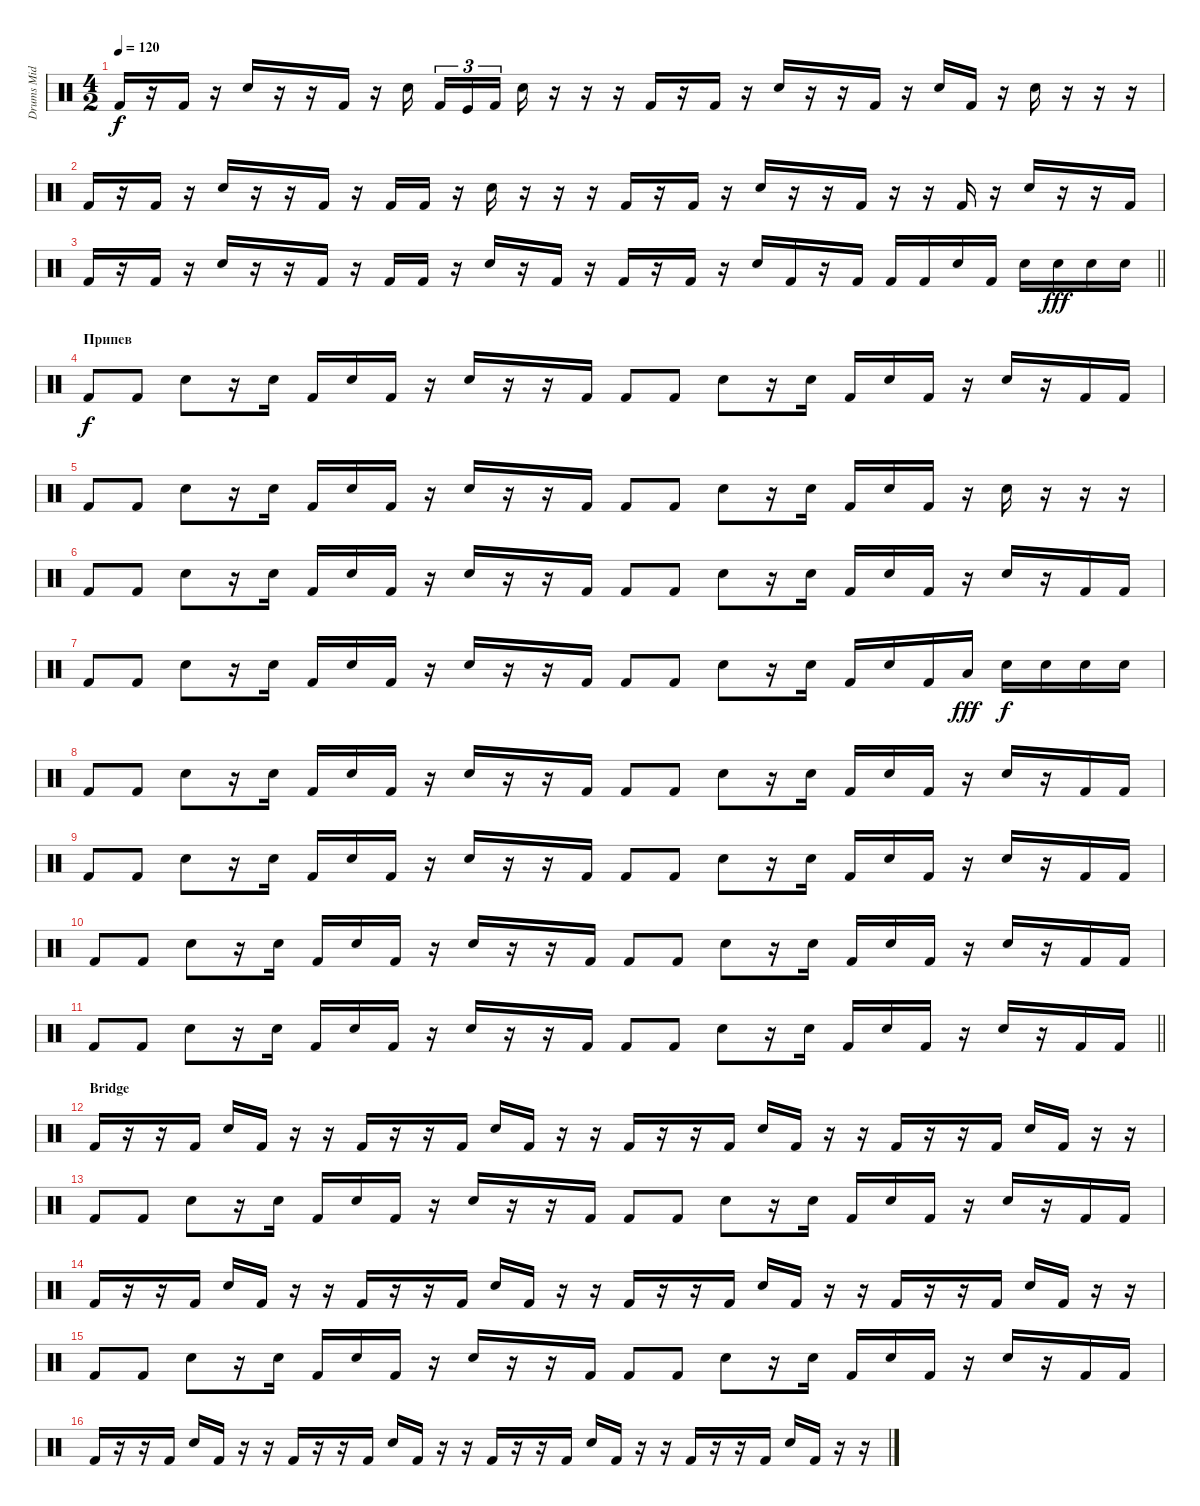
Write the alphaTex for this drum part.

\track ("Drums Mid" "Drums Mid") {instrument percussion}
\staff {score}
\articulation defaults
\ts (4 2)
\tempo 120
\clef neutral
\ks c "Kick (hit) 2".16{dy f}
r.16 "Kick (hit) 2".16 r.16 "Snare (hit) 2".16 r.16 r.16 "Kick (hit) 2".16 r.16 "Snare (hit) 2".16{beam splitsecondary} "Kick (hit) 2".16{tu (3 2)} "Kick (hit)".16{tu (3 2)} "Kick (hit) 2".16{tu (3 2) beam splitsecondary} "Snare (hit) 2".16 r.16 r.16 r.16 "Kick (hit) 2".16 r.16 "Kick (hit) 2".16 r.16 "Snare (hit) 2".16 r.16 r.16 "Kick (hit) 2".16 r.16 "Snare (hit) 2".16 "Kick (hit) 2".16 r.16 "Snare (hit) 2".16 r.16 r.16 r.16 |
"Kick (hit) 2".16 r.16 "Kick (hit) 2".16 r.16 "Snare (hit) 2".16 r.16 r.16 "Kick (hit) 2".16 r.16 "Kick (hit) 2".16 "Kick (hit) 2".16 r.16 "Snare (hit) 2".16 r.16 r.16 r.16 "Kick (hit) 2".16 r.16 "Kick (hit) 2".16 r.16 "Snare (hit) 2".16 r.16 r.16 "Kick (hit) 2".16 r.16 r.16 "Kick (hit) 2".16 r.16 "Snare (hit) 2".16 r.16 r.16 "Kick (hit) 2".16 |
\barLineRight lightlight "Kick (hit) 2".16
r.16 "Kick (hit) 2".16 r.16 "Snare (hit) 2".16 r.16 r.16 "Kick (hit) 2".16 r.16 "Kick (hit) 2".16 "Kick (hit) 2".16 r.16 "Snare (hit) 2".16 r.16 "Kick (hit) 2".16 r.16 "Kick (hit) 2".16 r.16 "Kick (hit) 2".16 r.16 "Snare (hit) 2".16 "Kick (hit) 2".16 r.16 "Kick (hit) 2".16 "Kick (hit) 2".16 "Kick (hit) 2".16 "Snare (hit) 2".16 "Kick (hit) 2".16 "Snare (hit) 2".16 "Snare (hit) 2".16{dy fff} "Snare (hit) 2".16 "Snare (hit) 2".16 |
\section ("" "Припев")
"Kick (hit) 2".8{dy f} "Kick (hit) 2".8 "Snare (hit) 2".8 r.16 "Snare (hit) 2".16 "Kick (hit) 2".16 "Snare (hit) 2".16 "Kick (hit) 2".16 r.16 "Snare (hit) 2".16 r.16 r.16 "Kick (hit) 2".16 "Kick (hit) 2".8 "Kick (hit) 2".8 "Snare (hit) 2".8 r.16 "Snare (hit) 2".16 "Kick (hit) 2".16 "Snare (hit) 2".16 "Kick (hit) 2".16 r.16 "Snare (hit) 2".16 r.16 "Kick (hit) 2".16 "Kick (hit) 2".16 |
"Kick (hit) 2".8 "Kick (hit) 2".8 "Snare (hit) 2".8 r.16 "Snare (hit) 2".16 "Kick (hit) 2".16 "Snare (hit) 2".16 "Kick (hit) 2".16 r.16 "Snare (hit) 2".16 r.16 r.16 "Kick (hit) 2".16 "Kick (hit) 2".8 "Kick (hit) 2".8 "Snare (hit) 2".8 r.16 "Snare (hit) 2".16 "Kick (hit) 2".16 "Snare (hit) 2".16 "Kick (hit) 2".16 r.16 "Snare (hit) 2".16 r.16 r.16 r.16 |
"Kick (hit) 2".8 "Kick (hit) 2".8 "Snare (hit) 2".8 r.16 "Snare (hit) 2".16 "Kick (hit) 2".16 "Snare (hit) 2".16 "Kick (hit) 2".16 r.16 "Snare (hit) 2".16 r.16 r.16 "Kick (hit) 2".16 "Kick (hit) 2".8 "Kick (hit) 2".8 "Snare (hit) 2".8 r.16 "Snare (hit) 2".16 "Kick (hit) 2".16 "Snare (hit) 2".16 "Kick (hit) 2".16 r.16 "Snare (hit) 2".16 r.16 "Kick (hit) 2".16 "Kick (hit) 2".16 |
"Kick (hit) 2".8 "Kick (hit) 2".8 "Snare (hit) 2".8 r.16 "Snare (hit) 2".16 "Kick (hit) 2".16 "Snare (hit) 2".16 "Kick (hit) 2".16 r.16 "Snare (hit) 2".16 r.16 r.16 "Kick (hit) 2".16 "Kick (hit) 2".8 "Kick (hit) 2".8 "Snare (hit) 2".8 r.16 "Snare (hit) 2".16 "Kick (hit) 2".16 "Snare (hit) 2".16 "Kick (hit) 2".16 "Low Tom (hit)".16{dy fff} "Snare (hit) 2".16{dy f} "Snare (hit) 2".16 "Snare (hit) 2".16 "Snare (hit) 2".16 |
"Kick (hit) 2".8 "Kick (hit) 2".8 "Snare (hit) 2".8 r.16 "Snare (hit) 2".16 "Kick (hit) 2".16 "Snare (hit) 2".16 "Kick (hit) 2".16 r.16 "Snare (hit) 2".16 r.16 r.16 "Kick (hit) 2".16 "Kick (hit) 2".8 "Kick (hit) 2".8 "Snare (hit) 2".8 r.16 "Snare (hit) 2".16 "Kick (hit) 2".16 "Snare (hit) 2".16 "Kick (hit) 2".16 r.16 "Snare (hit) 2".16 r.16 "Kick (hit) 2".16 "Kick (hit) 2".16 |
"Kick (hit) 2".8 "Kick (hit) 2".8 "Snare (hit) 2".8 r.16 "Snare (hit) 2".16 "Kick (hit) 2".16 "Snare (hit) 2".16 "Kick (hit) 2".16 r.16 "Snare (hit) 2".16 r.16 r.16 "Kick (hit) 2".16 "Kick (hit) 2".8 "Kick (hit) 2".8 "Snare (hit) 2".8 r.16 "Snare (hit) 2".16 "Kick (hit) 2".16 "Snare (hit) 2".16 "Kick (hit) 2".16 r.16 "Snare (hit) 2".16 r.16 "Kick (hit) 2".16 "Kick (hit) 2".16 |
"Kick (hit) 2".8 "Kick (hit) 2".8 "Snare (hit) 2".8 r.16 "Snare (hit) 2".16 "Kick (hit) 2".16 "Snare (hit) 2".16 "Kick (hit) 2".16 r.16 "Snare (hit) 2".16 r.16 r.16 "Kick (hit) 2".16 "Kick (hit) 2".8 "Kick (hit) 2".8 "Snare (hit) 2".8 r.16 "Snare (hit) 2".16 "Kick (hit) 2".16 "Snare (hit) 2".16 "Kick (hit) 2".16 r.16 "Snare (hit) 2".16 r.16 "Kick (hit) 2".16 "Kick (hit) 2".16 |
\barLineRight lightlight "Kick (hit) 2".8 "Kick (hit) 2".8 "Snare (hit) 2".8
r.16 "Snare (hit) 2".16 "Kick (hit) 2".16 "Snare (hit) 2".16 "Kick (hit) 2".16 r.16 "Snare (hit) 2".16 r.16 r.16 "Kick (hit) 2".16 "Kick (hit) 2".8 "Kick (hit) 2".8 "Snare (hit) 2".8 r.16 "Snare (hit) 2".16 "Kick (hit) 2".16 "Snare (hit) 2".16 "Kick (hit) 2".16 r.16 "Snare (hit) 2".16 r.16 "Kick (hit) 2".16 "Kick (hit) 2".16 |
\section ("" "Bridge")
"Kick (hit) 2".16 r.16 r.16 "Kick (hit) 2".16 "Snare (hit) 2".16 "Kick (hit) 2".16 r.16 r.16 "Kick (hit) 2".16 r.16 r.16 "Kick (hit) 2".16 "Snare (hit) 2".16 "Kick (hit) 2".16 r.16 r.16 "Kick (hit) 2".16 r.16 r.16 "Kick (hit) 2".16 "Snare (hit) 2".16 "Kick (hit) 2".16 r.16 r.16 "Kick (hit) 2".16 r.16 r.16 "Kick (hit) 2".16 "Snare (hit) 2".16 "Kick (hit) 2".16 r.16 r.16 |
"Kick (hit) 2".8 "Kick (hit) 2".8 "Snare (hit) 2".8 r.16 "Snare (hit) 2".16 "Kick (hit) 2".16 "Snare (hit) 2".16 "Kick (hit) 2".16 r.16 "Snare (hit) 2".16 r.16 r.16 "Kick (hit) 2".16 "Kick (hit) 2".8 "Kick (hit) 2".8 "Snare (hit) 2".8 r.16 "Snare (hit) 2".16 "Kick (hit) 2".16 "Snare (hit) 2".16 "Kick (hit) 2".16 r.16 "Snare (hit) 2".16 r.16 "Kick (hit) 2".16 "Kick (hit) 2".16 |
"Kick (hit) 2".16 r.16 r.16 "Kick (hit) 2".16 "Snare (hit) 2".16 "Kick (hit) 2".16 r.16 r.16 "Kick (hit) 2".16 r.16 r.16 "Kick (hit) 2".16 "Snare (hit) 2".16 "Kick (hit) 2".16 r.16 r.16 "Kick (hit) 2".16 r.16 r.16 "Kick (hit) 2".16 "Snare (hit) 2".16 "Kick (hit) 2".16 r.16 r.16 "Kick (hit) 2".16 r.16 r.16 "Kick (hit) 2".16 "Snare (hit) 2".16 "Kick (hit) 2".16 r.16 r.16 |
"Kick (hit) 2".8 "Kick (hit) 2".8 "Snare (hit) 2".8 r.16 "Snare (hit) 2".16 "Kick (hit) 2".16 "Snare (hit) 2".16 "Kick (hit) 2".16 r.16 "Snare (hit) 2".16 r.16 r.16 "Kick (hit) 2".16 "Kick (hit) 2".8 "Kick (hit) 2".8 "Snare (hit) 2".8 r.16 "Snare (hit) 2".16 "Kick (hit) 2".16 "Snare (hit) 2".16 "Kick (hit) 2".16 r.16 "Snare (hit) 2".16 r.16 "Kick (hit) 2".16 "Kick (hit) 2".16 |
"Kick (hit) 2".16 r.16 r.16 "Kick (hit) 2".16 "Snare (hit) 2".16 "Kick (hit) 2".16 r.16 r.16 "Kick (hit) 2".16 r.16 r.16 "Kick (hit) 2".16 "Snare (hit) 2".16 "Kick (hit) 2".16 r.16 r.16 "Kick (hit) 2".16 r.16 r.16 "Kick (hit) 2".16 "Snare (hit) 2".16 "Kick (hit) 2".16 r.16 r.16 "Kick (hit) 2".16 r.16 r.16 "Kick (hit) 2".16 "Snare (hit) 2".16 "Kick (hit) 2".16 r.16 r.16
